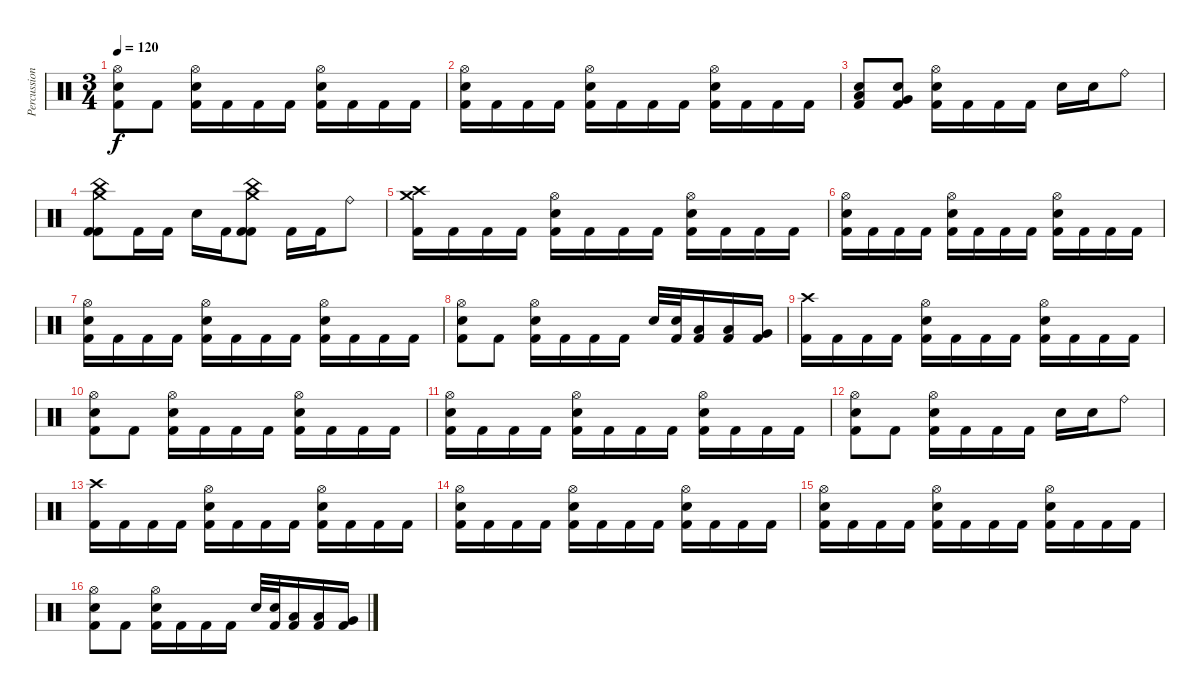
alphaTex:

\track ("Percussion" "Percussion") {instrument percussion}
\staff {score}
\articulation defaults
\ts (3 4)
\tempo 120
\clef neutral
\ks c
("Hi-Hat (open)" "Electric Snare (hit)" "Kick (hit) 2").8{dy f} "Kick (hit) 2".8 ("Hi-Hat (open)" "Electric Snare (hit)" "Kick (hit) 2").16 "Kick (hit) 2".16 "Kick (hit) 2".16 "Kick (hit) 2".16 ("Hi-Hat (open)" "Electric Snare (hit)" "Kick (hit) 2").16 "Kick (hit) 2".16 "Kick (hit) 2".16 "Kick (hit) 2".16 |
("Hi-Hat (open)" "Electric Snare (hit)" "Kick (hit) 2").16 "Kick (hit) 2".16 "Kick (hit) 2".16 "Kick (hit) 2".16 ("Hi-Hat (open)" "Electric Snare (hit)" "Kick (hit) 2").16 "Kick (hit) 2".16 "Kick (hit) 2".16 "Kick (hit) 2".16 ("Hi-Hat (open)" "Electric Snare (hit)" "Kick (hit) 2").16 "Kick (hit) 2".16 "Kick (hit) 2".16 "Kick (hit) 2".16 |
("Low Tom (hit)" "Electric Snare (hit)" "Kick (hit) 2").8 ("Very Low Tom (hit)" "Electric Snare (hit)" "Kick (hit) 2").8 ("Hi-Hat (open)" "Electric Snare (hit)" "Kick (hit) 2").16 "Kick (hit) 2".16 "Kick (hit) 2".16 "Kick (hit) 2".16 "Electric Snare (hit)".16 "Electric Snare (hit)".16 "Ride (bell)".8 |
("China (hit)" "Crash medium (hit)" "Kick (hit) 2" "Kick (hit) 2").8 "Kick (hit) 2".16 "Kick (hit) 2".16 "Electric Snare (hit)".16 "Kick (hit) 2".16 ("China (hit)" "Crash medium (hit)" "Kick (hit) 2" "Kick (hit) 2").8 "Kick (hit) 2".16 "Kick (hit) 2".16 "Ride (bell)".8 |
("Crash high (hit)" "Crash medium (hit)" "Kick (hit) 2").16 "Kick (hit) 2".16 "Kick (hit) 2".16 "Kick (hit) 2".16 ("Hi-Hat (open)" "Electric Snare (hit)" "Kick (hit) 2").16 "Kick (hit) 2".16 "Kick (hit) 2".16 "Kick (hit) 2".16 ("Hi-Hat (open)" "Electric Snare (hit)" "Kick (hit) 2").16 "Kick (hit) 2".16 "Kick (hit) 2".16 "Kick (hit) 2".16 |
("Hi-Hat (open)" "Electric Snare (hit)" "Kick (hit) 2").16 "Kick (hit) 2".16 "Kick (hit) 2".16 "Kick (hit) 2".16 ("Hi-Hat (open)" "Electric Snare (hit)" "Kick (hit) 2").16 "Kick (hit) 2".16 "Kick (hit) 2".16 "Kick (hit) 2".16 ("Hi-Hat (open)" "Electric Snare (hit)" "Kick (hit) 2").16 "Kick (hit) 2".16 "Kick (hit) 2".16 "Kick (hit) 2".16 |
("Hi-Hat (open)" "Electric Snare (hit)" "Kick (hit) 2").16 "Kick (hit) 2".16 "Kick (hit) 2".16 "Kick (hit) 2".16 ("Hi-Hat (open)" "Electric Snare (hit)" "Kick (hit) 2").16 "Kick (hit) 2".16 "Kick (hit) 2".16 "Kick (hit) 2".16 ("Hi-Hat (open)" "Electric Snare (hit)" "Kick (hit) 2").16 "Kick (hit) 2".16 "Kick (hit) 2".16 "Kick (hit) 2".16 |
("Hi-Hat (open)" "Electric Snare (hit)" "Kick (hit) 2").8 "Kick (hit) 2".8 ("Hi-Hat (open)" "Electric Snare (hit)" "Kick (hit) 2").16 "Kick (hit) 2".16 "Kick (hit) 2".16 "Kick (hit) 2".16 "Electric Snare (hit)".32 ("Electric Snare (hit)" "Kick (hit) 2").32 ("Low Tom (hit)" "Kick (hit) 2").16 ("Low Tom (hit)" "Kick (hit) 2").16 ("Very Low Tom (hit)" "Kick (hit) 2").16 |
("Crash high (hit)" "Kick (hit) 2").16 "Kick (hit) 2".16 "Kick (hit) 2".16 "Kick (hit) 2".16 ("Hi-Hat (open)" "Electric Snare (hit)" "Kick (hit) 2").16 "Kick (hit) 2".16 "Kick (hit) 2".16 "Kick (hit) 2".16 ("Hi-Hat (open)" "Electric Snare (hit)" "Kick (hit) 2").16 "Kick (hit) 2".16 "Kick (hit) 2".16 "Kick (hit) 2".16 |
("Hi-Hat (open)" "Electric Snare (hit)" "Kick (hit) 2").8 "Kick (hit) 2".8 ("Hi-Hat (open)" "Electric Snare (hit)" "Kick (hit) 2").16 "Kick (hit) 2".16 "Kick (hit) 2".16 "Kick (hit) 2".16 ("Hi-Hat (open)" "Electric Snare (hit)" "Kick (hit) 2").16 "Kick (hit) 2".16 "Kick (hit) 2".16 "Kick (hit) 2".16 |
("Hi-Hat (open)" "Electric Snare (hit)" "Kick (hit) 2").16 "Kick (hit) 2".16 "Kick (hit) 2".16 "Kick (hit) 2".16 ("Hi-Hat (open)" "Electric Snare (hit)" "Kick (hit) 2").16 "Kick (hit) 2".16 "Kick (hit) 2".16 "Kick (hit) 2".16 ("Hi-Hat (open)" "Electric Snare (hit)" "Kick (hit) 2").16 "Kick (hit) 2".16 "Kick (hit) 2".16 "Kick (hit) 2".16 |
("Hi-Hat (open)" "Electric Snare (hit)" "Kick (hit) 2").8 "Kick (hit) 2".8 ("Hi-Hat (open)" "Electric Snare (hit)" "Kick (hit) 2").16 "Kick (hit) 2".16 "Kick (hit) 2".16 "Kick (hit) 2".16 "Electric Snare (hit)".16 "Electric Snare (hit)".16 "Ride (bell)".8 |
("Crash high (hit)" "Kick (hit) 2").16 "Kick (hit) 2".16 "Kick (hit) 2".16 "Kick (hit) 2".16 ("Hi-Hat (open)" "Electric Snare (hit)" "Kick (hit) 2").16 "Kick (hit) 2".16 "Kick (hit) 2".16 "Kick (hit) 2".16 ("Hi-Hat (open)" "Electric Snare (hit)" "Kick (hit) 2").16 "Kick (hit) 2".16 "Kick (hit) 2".16 "Kick (hit) 2".16 |
("Hi-Hat (open)" "Electric Snare (hit)" "Kick (hit) 2").16 "Kick (hit) 2".16 "Kick (hit) 2".16 "Kick (hit) 2".16 ("Hi-Hat (open)" "Electric Snare (hit)" "Kick (hit) 2").16 "Kick (hit) 2".16 "Kick (hit) 2".16 "Kick (hit) 2".16 ("Hi-Hat (open)" "Electric Snare (hit)" "Kick (hit) 2").16 "Kick (hit) 2".16 "Kick (hit) 2".16 "Kick (hit) 2".16 |
("Hi-Hat (open)" "Electric Snare (hit)" "Kick (hit) 2").16 "Kick (hit) 2".16 "Kick (hit) 2".16 "Kick (hit) 2".16 ("Hi-Hat (open)" "Electric Snare (hit)" "Kick (hit) 2").16 "Kick (hit) 2".16 "Kick (hit) 2".16 "Kick (hit) 2".16 ("Hi-Hat (open)" "Electric Snare (hit)" "Kick (hit) 2").16 "Kick (hit) 2".16 "Kick (hit) 2".16 "Kick (hit) 2".16 |
("Hi-Hat (open)" "Electric Snare (hit)" "Kick (hit) 2").8 "Kick (hit) 2".8 ("Hi-Hat (open)" "Electric Snare (hit)" "Kick (hit) 2").16 "Kick (hit) 2".16 "Kick (hit) 2".16 "Kick (hit) 2".16 "Electric Snare (hit)".32 ("Electric Snare (hit)" "Kick (hit) 2").32 ("Low Tom (hit)" "Kick (hit) 2").16 ("Low Tom (hit)" "Kick (hit) 2").16 ("Very Low Tom (hit)" "Kick (hit) 2").16
